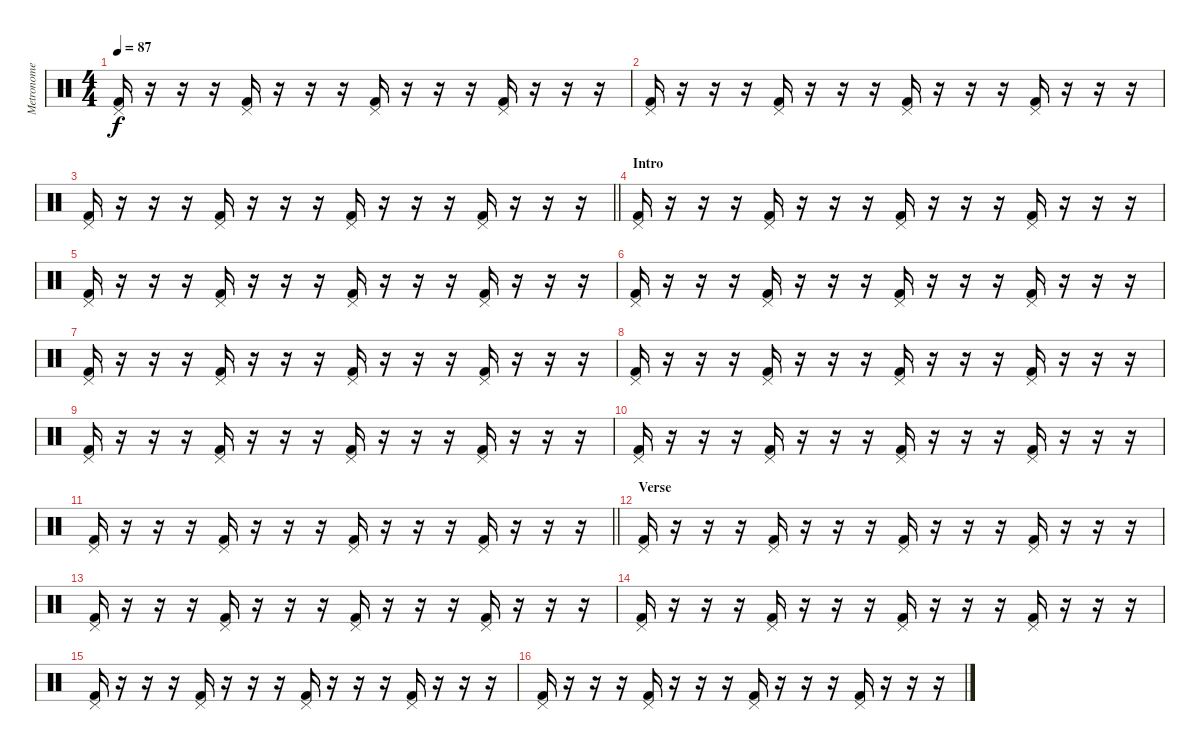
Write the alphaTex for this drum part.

\track ("Metronome" "Metronome") {mute instrument percussion}
\staff {score}
\articulation defaults
\ts (4 4)
\tempo 87
\clef neutral
\ks c
("Pedal Hi-Hat (hit)" "Kick (hit) 2").16{dy f} r.16 r.16 r.16 ("Pedal Hi-Hat (hit)" "Kick (hit) 2").16 r.16 r.16 r.16 ("Pedal Hi-Hat (hit)" "Kick (hit) 2").16 r.16 r.16 r.16 ("Pedal Hi-Hat (hit)" "Kick (hit) 2").16 r.16 r.16 r.16 |
("Pedal Hi-Hat (hit)" "Kick (hit) 2").16 r.16 r.16 r.16 ("Pedal Hi-Hat (hit)" "Kick (hit) 2").16 r.16 r.16 r.16 ("Pedal Hi-Hat (hit)" "Kick (hit) 2").16 r.16 r.16 r.16 ("Pedal Hi-Hat (hit)" "Kick (hit) 2").16 r.16 r.16 r.16 |
\barLineRight lightlight
("Pedal Hi-Hat (hit)" "Kick (hit) 2").16 r.16 r.16 r.16 ("Pedal Hi-Hat (hit)" "Kick (hit) 2").16 r.16 r.16 r.16 ("Pedal Hi-Hat (hit)" "Kick (hit) 2").16 r.16 r.16 r.16 ("Pedal Hi-Hat (hit)" "Kick (hit) 2").16 r.16 r.16 r.16 |
\section ("" "Intro")
("Pedal Hi-Hat (hit)" "Kick (hit) 2").16 r.16 r.16 r.16 ("Pedal Hi-Hat (hit)" "Kick (hit) 2").16 r.16 r.16 r.16 ("Pedal Hi-Hat (hit)" "Kick (hit) 2").16 r.16 r.16 r.16 ("Pedal Hi-Hat (hit)" "Kick (hit) 2").16 r.16 r.16 r.16 |
("Pedal Hi-Hat (hit)" "Kick (hit) 2").16 r.16 r.16 r.16 ("Pedal Hi-Hat (hit)" "Kick (hit) 2").16 r.16 r.16 r.16 ("Pedal Hi-Hat (hit)" "Kick (hit) 2").16 r.16 r.16 r.16 ("Pedal Hi-Hat (hit)" "Kick (hit) 2").16 r.16 r.16 r.16 |
("Pedal Hi-Hat (hit)" "Kick (hit) 2").16 r.16 r.16 r.16 ("Pedal Hi-Hat (hit)" "Kick (hit) 2").16 r.16 r.16 r.16 ("Pedal Hi-Hat (hit)" "Kick (hit) 2").16 r.16 r.16 r.16 ("Pedal Hi-Hat (hit)" "Kick (hit) 2").16 r.16 r.16 r.16 |
("Pedal Hi-Hat (hit)" "Kick (hit) 2").16 r.16 r.16 r.16 ("Pedal Hi-Hat (hit)" "Kick (hit) 2").16 r.16 r.16 r.16 ("Pedal Hi-Hat (hit)" "Kick (hit) 2").16 r.16 r.16 r.16 ("Pedal Hi-Hat (hit)" "Kick (hit) 2").16 r.16 r.16 r.16 |
("Pedal Hi-Hat (hit)" "Kick (hit) 2").16 r.16 r.16 r.16 ("Pedal Hi-Hat (hit)" "Kick (hit) 2").16 r.16 r.16 r.16 ("Pedal Hi-Hat (hit)" "Kick (hit) 2").16 r.16 r.16 r.16 ("Pedal Hi-Hat (hit)" "Kick (hit) 2").16 r.16 r.16 r.16 |
("Pedal Hi-Hat (hit)" "Kick (hit) 2").16 r.16 r.16 r.16 ("Pedal Hi-Hat (hit)" "Kick (hit) 2").16 r.16 r.16 r.16 ("Pedal Hi-Hat (hit)" "Kick (hit) 2").16 r.16 r.16 r.16 ("Pedal Hi-Hat (hit)" "Kick (hit) 2").16 r.16 r.16 r.16 |
("Pedal Hi-Hat (hit)" "Kick (hit) 2").16 r.16 r.16 r.16 ("Pedal Hi-Hat (hit)" "Kick (hit) 2").16 r.16 r.16 r.16 ("Pedal Hi-Hat (hit)" "Kick (hit) 2").16 r.16 r.16 r.16 ("Pedal Hi-Hat (hit)" "Kick (hit) 2").16 r.16 r.16 r.16 |
\barLineRight lightlight
("Pedal Hi-Hat (hit)" "Kick (hit) 2").16 r.16 r.16 r.16 ("Pedal Hi-Hat (hit)" "Kick (hit) 2").16 r.16 r.16 r.16 ("Pedal Hi-Hat (hit)" "Kick (hit) 2").16 r.16 r.16 r.16 ("Pedal Hi-Hat (hit)" "Kick (hit) 2").16 r.16 r.16 r.16 |
\section ("" "Verse")
("Pedal Hi-Hat (hit)" "Kick (hit) 2").16 r.16 r.16 r.16 ("Pedal Hi-Hat (hit)" "Kick (hit) 2").16 r.16 r.16 r.16 ("Pedal Hi-Hat (hit)" "Kick (hit) 2").16 r.16 r.16 r.16 ("Pedal Hi-Hat (hit)" "Kick (hit) 2").16 r.16 r.16 r.16 |
("Pedal Hi-Hat (hit)" "Kick (hit) 2").16 r.16 r.16 r.16 ("Pedal Hi-Hat (hit)" "Kick (hit) 2").16 r.16 r.16 r.16 ("Pedal Hi-Hat (hit)" "Kick (hit) 2").16 r.16 r.16 r.16 ("Pedal Hi-Hat (hit)" "Kick (hit) 2").16 r.16 r.16 r.16 |
("Pedal Hi-Hat (hit)" "Kick (hit) 2").16 r.16 r.16 r.16 ("Pedal Hi-Hat (hit)" "Kick (hit) 2").16 r.16 r.16 r.16 ("Pedal Hi-Hat (hit)" "Kick (hit) 2").16 r.16 r.16 r.16 ("Pedal Hi-Hat (hit)" "Kick (hit) 2").16 r.16 r.16 r.16 |
("Pedal Hi-Hat (hit)" "Kick (hit) 2").16 r.16 r.16 r.16 ("Pedal Hi-Hat (hit)" "Kick (hit) 2").16 r.16 r.16 r.16 ("Pedal Hi-Hat (hit)" "Kick (hit) 2").16 r.16 r.16 r.16 ("Pedal Hi-Hat (hit)" "Kick (hit) 2").16 r.16 r.16 r.16 |
("Pedal Hi-Hat (hit)" "Kick (hit) 2").16 r.16 r.16 r.16 ("Pedal Hi-Hat (hit)" "Kick (hit) 2").16 r.16 r.16 r.16 ("Pedal Hi-Hat (hit)" "Kick (hit) 2").16 r.16 r.16 r.16 ("Pedal Hi-Hat (hit)" "Kick (hit) 2").16 r.16 r.16 r.16
